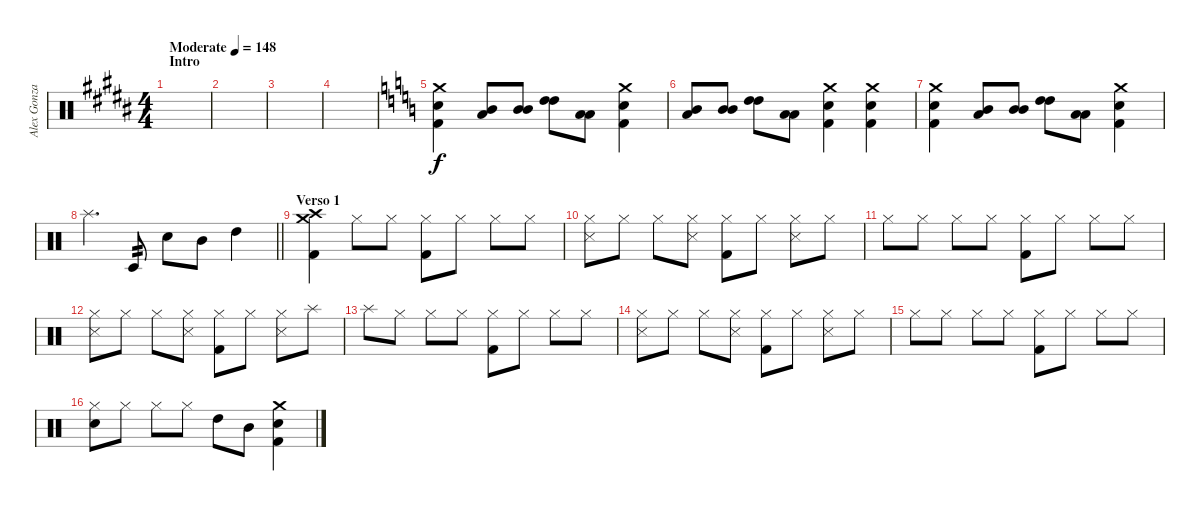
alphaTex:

\track ("Alex Gonzalez" "Alex Gonza") {instrument percussion}
\staff {score}
\articulation defaults
\ts (4 4)
\section ("" "Intro")
\tempo (148 "Moderate")
\clef neutral
\ks b
|
|
|
|
\ks c
("Crash medium (hit)" "Snare (hit) 2" "Kick (hit) 2").4 ("Mid Tom (hit)" "Low Tom (hit)").8 ("Mid Tom (hit)" "Mid Tom (hit)").8 ("High Tom (hit)" "High Tom (hit)").8 ("Low Tom (hit)" "Low Tom (hit)").8 ("Crash medium (hit)" "Snare (hit) 2" "Kick (hit) 2").4 |
("Mid Tom (hit)" "Low Tom (hit)").8 ("Mid Tom (hit)" "Mid Tom (hit)").8 ("High Tom (hit)" "High Tom (hit)").8 ("Low Tom (hit)" "Low Tom (hit)").8 ("Crash medium (hit)" "Snare (hit) 2" "Kick (hit) 2").4 ("Crash medium (hit)" "Snare (hit) 2" "Kick (hit) 2").4 |
("Crash medium (hit)" "Snare (hit) 2" "Kick (hit) 2").4 ("Mid Tom (hit)" "Low Tom (hit)").8 ("Mid Tom (hit)" "Mid Tom (hit)").8 ("High Tom (hit)" "High Tom (hit)").8 ("Low Tom (hit)" "Low Tom (hit)").8 ("Crash medium (hit)" "Snare (hit) 2" "Kick (hit) 2").4 |
\barLineRight lightlight "Splash (hit)".4{d} "Timbale low (hit)".8{tp 2} "Snare (hit) 2".8 "Mid Tom (hit)".8 "High Tom (hit)".4
|
\section ("" "Verso 1")
("Crash medium (hit)" "Crash high (hit)" "Kick (hit) 2").4 "Hi-Hat (closed)".8 "Hi-Hat (closed)".8 ("Hi-Hat (closed)" "Kick (hit) 2").8 "Hi-Hat (closed)".8 "Hi-Hat (closed)".8 "Hi-Hat (closed)".8 |
("Hi-Hat (closed)" "Snare (side stick) 3").8 "Hi-Hat (closed)".8 "Hi-Hat (closed)".8 ("Hi-Hat (closed)" "Snare (side stick) 3").8 ("Hi-Hat (closed)" "Kick (hit) 2").8 "Hi-Hat (closed)".8 ("Hi-Hat (closed)" "Snare (side stick) 3").8 "Hi-Hat (closed)".8 |
"Hi-Hat (closed)".8 "Hi-Hat (closed)".8 "Hi-Hat (closed)".8 "Hi-Hat (closed)".8 ("Hi-Hat (closed)" "Kick (hit) 2").8 "Hi-Hat (closed)".8 "Hi-Hat (closed)".8 "Hi-Hat (closed)".8 |
("Hi-Hat (closed)" "Snare (side stick) 3").8 "Hi-Hat (closed)".8 "Hi-Hat (closed)".8 ("Hi-Hat (closed)" "Snare (side stick) 3").8 ("Hi-Hat (closed)" "Kick (hit) 2").8 "Hi-Hat (closed)".8 ("Hi-Hat (closed)" "Snare (side stick) 3").8 "Splash (hit)".8 |
"Splash (hit)".8 "Hi-Hat (closed)".8 "Hi-Hat (closed)".8 "Hi-Hat (closed)".8 ("Hi-Hat (closed)" "Kick (hit) 2").8 "Hi-Hat (closed)".8 "Hi-Hat (closed)".8 "Hi-Hat (closed)".8 |
("Hi-Hat (closed)" "Snare (side stick) 3").8 "Hi-Hat (closed)".8 "Hi-Hat (closed)".8 ("Hi-Hat (closed)" "Snare (side stick) 3").8 ("Hi-Hat (closed)" "Kick (hit) 2").8 "Hi-Hat (closed)".8 ("Hi-Hat (closed)" "Snare (side stick) 3").8 "Hi-Hat (closed)".8 |
"Hi-Hat (closed)".8 "Hi-Hat (closed)".8 "Hi-Hat (closed)".8 "Hi-Hat (closed)".8 ("Hi-Hat (closed)" "Kick (hit) 2").8 "Hi-Hat (closed)".8 "Hi-Hat (closed)".8 "Hi-Hat (closed)".8 |
("Hi-Hat (closed)" "Electric Snare (hit)").8 "Hi-Hat (closed)".8 "Hi-Hat (closed)".8 "Hi-Hat (closed)".8 "High Tom (hit)".8 "Mid Tom (hit)".8 ("Crash medium (hit)" "Electric Snare (hit)" "Kick (hit) 2").4
